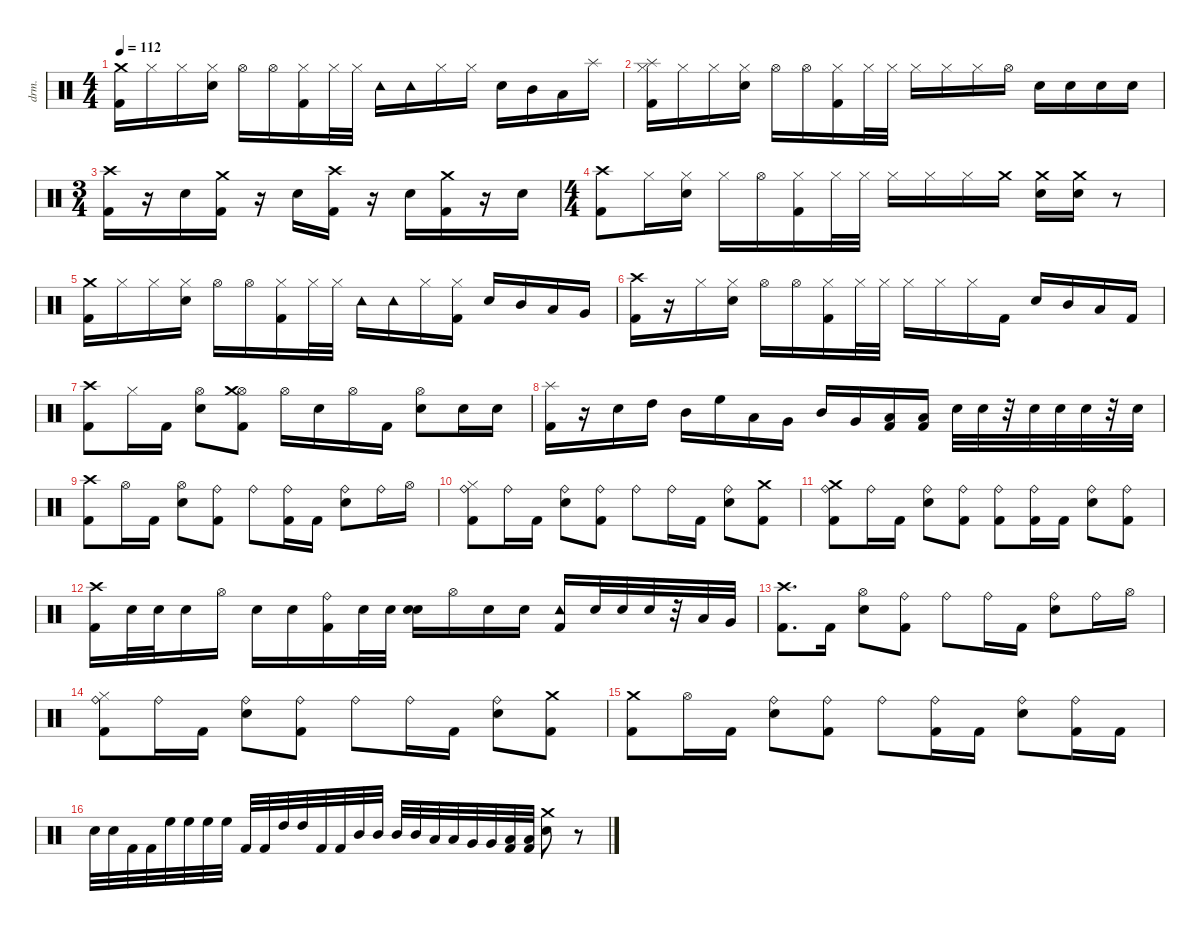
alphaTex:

\defaultSystemsLayout 4
\hideDynamics
\bracketExtendMode nobrackets
\otherSystemsTrackNameOrientation horizontal
\track ("Drums" "drm.") {instrument percussion}
\staff {score}
\articulation defaults
\ts (4 4)
\tempo 112
\clef neutral
\ks c
("Kick (hit) 2" "Crash medium (hit)").16{dy f beam Down} "Hi-Hat (closed)".16{dy mf beam Down} "Hi-Hat (closed)".16{beam Down} ("Snare (hit) 2" "Hi-Hat (closed)").16{dy f beam Down} "Hi-Hat (open)".16{beam Down} "Hi-Hat (open)".16{beam Down} ("Kick (hit) 2" "Hi-Hat (closed)").16{beam Down} "Hi-Hat (closed)".32{dy mf beam Down} "Hi-Hat (closed)".32{beam Down} "Tambourine (hit)".16{dy f beam Down} "Tambourine (hit)".16{beam Down} "Hi-Hat (closed)".16{dy mf beam Down} "Hi-Hat (closed)".16{beam Down} "Snare (hit) 2".16{dy f beam Down} "Mid Tom (hit)".16{beam Down} "Low Tom (hit)".16{beam Down} "Splash (hit)".16{beam Down} |
("Kick (hit) 2" "Splash (hit)" "Hi-Hat (closed)").16{beam Down} "Hi-Hat (closed)".16{beam Down} "Hi-Hat (closed)".16{dy mf beam Down} ("Snare (hit) 2" "Hi-Hat (closed)").16{dy f beam Down} "Hi-Hat (open)".16{beam Down} "Hi-Hat (open)".16{beam Down} ("Kick (hit) 2" "Hi-Hat (closed)").16{beam Down} "Hi-Hat (closed)".32{dy mf beam Down} "Hi-Hat (closed)".32{beam Down} "Hi-Hat (closed)".16{beam Down} "Hi-Hat (closed)".16{beam Down} "Hi-Hat (closed)".16{beam Down} "Hi-Hat (open)".16{dy f beam Down} "Snare (hit) 2".16{beam Down} "Snare (hit) 2".16{beam Down} "Snare (hit) 2".16{beam Down} "Snare (hit) 2".16{beam Down} |
\ts (3 4)
\beaming (8 2 2 2)
("Kick (hit) 2" "Crash high (hit)").16{beam Down} r.16{beam Down} "Snare (hit) 2".16{dy mf beam Down} ("Kick (hit) 2" "Crash medium (hit)").16{dy f beam Down} r.16{beam Down} "Snare (hit) 2".16{dy mf beam Down} ("Kick (hit) 2" "Crash high (hit)").16{dy f beam Down} r.16{beam Down} "Snare (hit) 2".16{dy mf beam Down} ("Kick (hit) 2" "Crash medium (hit)").16{dy f beam Down} r.16{beam Down} "Snare (hit) 2".16{beam Down} |
\ts (4 4)
\beaming (8 2 2 2 2)
("Kick (hit) 2" "Crash high (hit)").8{beam Down} "Hi-Hat (closed)".16{dy mf beam Down} ("Snare (hit) 2" "Hi-Hat (closed)").16{dy f beam Down} "Hi-Hat (closed)".16{dy mf beam Down} "Hi-Hat (open)".16{dy f beam Down} ("Kick (hit) 2" "Hi-Hat (closed)").16{beam Down} "Hi-Hat (closed)".32{dy mf beam Down} "Hi-Hat (closed)".32{beam Down} "Hi-Hat (closed)".16{beam Down} "Hi-Hat (closed)".16{beam Down} "Hi-Hat (closed)".16{beam Down} "Crash medium (hit)".16{dy mp beam Down} ("Snare (hit) 2" "Crash medium (hit)").16{dy mf beam Down} ("Snare (hit) 2" "Crash medium (hit)").16{dy f beam Down} r.8{beam Down} |
("Crash medium (hit)" "Kick (hit) 2").16{beam Down} "Hi-Hat (closed)".16{dy mf beam Down} "Hi-Hat (closed)".16{beam Down} ("Snare (hit) 2" "Hi-Hat (closed)").16{dy f beam Down} "Hi-Hat (open)".16{beam Down} "Hi-Hat (open)".16{beam Down} ("Kick (hit) 2" "Hi-Hat (closed)").16{beam Down} "Hi-Hat (closed)".32{dy mf beam Down} "Hi-Hat (closed)".32{beam Down} "Tambourine (hit)".16{dy f beam Down} "Tambourine (hit)".16{beam Down} "Hi-Hat (closed)".16{dy mf beam Down} ("Kick (hit) 2" "Hi-Hat (closed)").16{beam Down} "Snare (hit) 2".16{dy f beam Up} "Mid Tom (hit)".16{beam Up} "Low Tom (hit)".16{beam Up} "Very Low Tom (hit)".16{beam Up} |
("Crash high (hit)" "Kick (hit) 2").16{beam Down} r.16{beam Down} "Hi-Hat (closed)".16{dy mf beam Down} ("Snare (hit) 2" "Hi-Hat (closed)").16{dy f beam Down} "Hi-Hat (open)".16{beam Down} "Hi-Hat (open)".16{beam Down} ("Kick (hit) 2" "Hi-Hat (closed)").16{beam Down} "Hi-Hat (closed)".32{dy mf beam Down} "Hi-Hat (closed)".32{beam Down} "Hi-Hat (closed)".16{beam Down} "Hi-Hat (closed)".16{beam Down} "Hi-Hat (closed)".16{beam Down} "Kick (hit) 2".16{dy f beam Down} "Snare (hit) 2".16{beam Up} "Mid Tom (hit)".16{beam Up} "Low Tom (hit)".16{beam Up} "Kick (hit) 2".16{beam Up} |
("Crash high (hit)" "Kick (hit) 2").8{beam Down} "Hi-Hat (closed)".16{dy mp beam Down} "Kick (hit) 2".16{dy f beam Down} ("Snare (hit) 2" "Hi-Hat (open)").8{beam Down} ("Hi-Hat (open)" "Kick (hit) 2" "Crash medium (hit)").8{beam Down} "Hi-Hat (open)".16{beam Down} "Snare (hit) 2".16{beam Down} "Hi-Hat (open)".16{beam Down} "Kick (hit) 2".16{beam Down} ("Snare (hit) 2" "Hi-Hat (open)").8{beam Down} "Snare (hit) 2".16{beam Down} "Snare (hit) 2".16{beam Down} |
("Splash (hit)" "Kick (hit) 2").16{beam Down} r.16{beam Down} "Snare (hit) 2".16{beam Down} "High Tom (hit)".16{beam Down} "Mid Tom (hit)".16{beam Down} "High Floor Tom (hit)".16{beam Down} "Low Tom (hit)".16{beam Down} "Very Low Tom (hit)".16{beam Down} "Mid Tom (hit)".16{beam Up} "Very Low Tom (hit)".16{beam Up} ("Kick (hit) 2" "Low Floor Tom (hit)").16{beam Up} ("Kick (hit) 2" "Low Floor Tom (hit)").16{beam Up} "Snare (hit) 2".32{beam Down} "Snare (hit) 2".32{beam Down} r.32{beam Down} "Snare (hit) 2".32{beam Down} "Snare (hit) 2".32{beam Down} "Snare (hit) 2".32{beam Down} r.32{beam Down} "Snare (hit) 2".32{beam Down} |
("Crash high (hit)" "Kick (hit) 2").8{beam Down} "Hi-Hat (open)".16{beam Down} "Kick (hit) 2".16{beam Down} ("Snare (hit) 2" "Hi-Hat (open)").8{beam Down} ("Kick (hit) 2" "Ride (bell)").8{beam Down} "Ride (bell)".8{beam Down} ("Kick (hit) 2" "Ride (bell)").16{beam Down} "Kick (hit) 2".16{beam Down} ("Snare (hit) 2" "Ride (bell)").8{beam Down} "Ride (bell)".16{beam Down} "Hi-Hat (open)".16{beam Down} |
("Ride (bell)" "Hi-Hat (closed)" "Kick (hit) 2").8{beam Down} "Ride (bell)".16{beam Down} "Kick (hit) 2".16{beam Down} ("Snare (hit) 2" "Ride (bell)").8{beam Down} ("Kick (hit) 2" "Ride (bell)").8{beam Down} "Ride (bell)".8{beam Down} "Ride (bell)".16{beam Down} "Kick (hit) 2".16{beam Down} ("Ride (bell)" "Snare (hit) 2").8{beam Down} ("Kick (hit) 2" "Crash medium (hit)").8{beam Down} |
("Kick (hit) 2" "Ride (bell)" "Crash medium (hit)").8{beam Down} "Ride (bell)".16{beam Down} "Kick (hit) 2".16{beam Down} ("Snare (hit) 2" "Ride (bell)").8{beam Down} ("Ride (bell)" "Kick (hit) 2").8{beam Down} ("Ride (bell)" "Kick (hit) 2").8{beam Down} ("Ride (bell)" "Kick (hit) 2").16{beam Down} "Kick (hit) 2".16{beam Down} ("Ride (bell)" "Snare (hit) 2").8{beam Down} ("Kick (hit) 2" "Ride (bell)").8{beam Down} |
("Crash high (hit)" "Kick (hit) 2").16{beam Down} "Snare (hit) 2".32{beam Down} "Snare (hit) 2".32{beam Down} "Snare (hit) 2".16{beam Down} "Hi-Hat (open)".16{beam Down} "Snare (hit) 2".16{beam Down} "Snare (hit) 2".16{beam Down} ("Kick (hit) 2" "Ride (bell)").16{beam Down} "Snare (hit) 2".32{beam Down} "Snare (hit) 2".32{beam Down} ("Snare (hit) 2" "Snare (hit) 2").16{beam Down} "Hi-Hat (open)".16{beam Down} "Snare (hit) 2".16{beam Down} "Snare (hit) 2".16{beam Down} ("Kick (hit) 2" "Tambourine (hit)").16{beam Up} "Snare (hit) 2".32{beam Up} "Snare (hit) 2".32{beam Up} "Snare (hit) 2".32{beam Up} r.32{beam Up} "Low Tom (hit)".32{beam Up} "Very Low Tom (hit)".32{beam Up} |
("Kick (hit) 2" "Crash high (hit)").8{d beam Down} "Kick (hit) 2".16{beam Down} ("Snare (hit) 2" "Hi-Hat (open)").8{beam Down} ("Kick (hit) 2" "Ride (bell)").8{beam Down} "Ride (bell)".8{beam Down} "Ride (bell)".16{beam Down} "Kick (hit) 2".16{beam Down} ("Snare (hit) 2" "Ride (bell)").8{beam Down} "Ride (bell)".16{beam Down} "Hi-Hat (open)".16{beam Down} |
("Ride (bell)" "Hi-Hat (closed)" "Kick (hit) 2").8{beam Down} "Ride (bell)".16{beam Down} "Kick (hit) 2".16{beam Down} ("Snare (hit) 2" "Ride (bell)").8{beam Down} ("Kick (hit) 2" "Ride (bell)").8{beam Down} "Ride (bell)".8{beam Down} "Ride (bell)".16{beam Down} "Kick (hit) 2".16{beam Down} ("Ride (bell)" "Snare (hit) 2").8{beam Down} ("Kick (hit) 2" "Crash medium (hit)").8{beam Down} |
("Kick (hit) 2" "Crash medium (hit)").8{beam Down} "Hi-Hat (open)".16{beam Down} "Kick (hit) 2".16{beam Down} ("Snare (hit) 2" "Ride (bell)").8{beam Down} ("Ride (bell)" "Kick (hit) 2").8{beam Down} "Ride (bell)".8{beam Down} ("Kick (hit) 2" "Ride (bell)").16{beam Down} "Kick (hit) 2".16{beam Down} ("Ride (bell)" "Snare (hit) 2").8{beam Down} ("Ride (bell)" "Kick (hit) 2").16{beam Down} "Kick (hit) 2".16{beam Down} |
"Snare (hit) 2".32{beam Down} "Snare (hit) 2".32{beam Down} "Kick (hit) 2".32{beam Down} "Kick (hit) 2".32{beam Down} "High Floor Tom (hit)".32{beam Down} "High Floor Tom (hit)".32{beam Down} "High Floor Tom (hit)".32{beam Down} "High Floor Tom (hit)".32{beam Down} "Kick (hit) 2".32{beam Up} "Kick (hit) 2".32{beam Up} "High Tom (hit)".32{beam Up} "High Tom (hit)".32{beam Up} "Kick (hit) 2".32{beam Up} "Kick (hit) 2".32{beam Up} "Mid Tom (hit)".32{beam Up} "Mid Tom (hit)".32{beam Up} "Mid Tom (hit)".32{beam Up} "Mid Tom (hit)".32{beam Up} "Low Tom (hit)".32{beam Up} "Low Tom (hit)".32{beam Up} "Very Low Tom (hit)".32{beam Up} "Very Low Tom (hit)".32{beam Up} ("Low Floor Tom (hit)" "Kick (hit) 2").32{beam Up} ("Low Floor Tom (hit)" "Kick (hit) 2").32{beam Up} ("Snare (hit) 2" "Crash medium (hit)").8{beam Down} r.8{beam Down}
